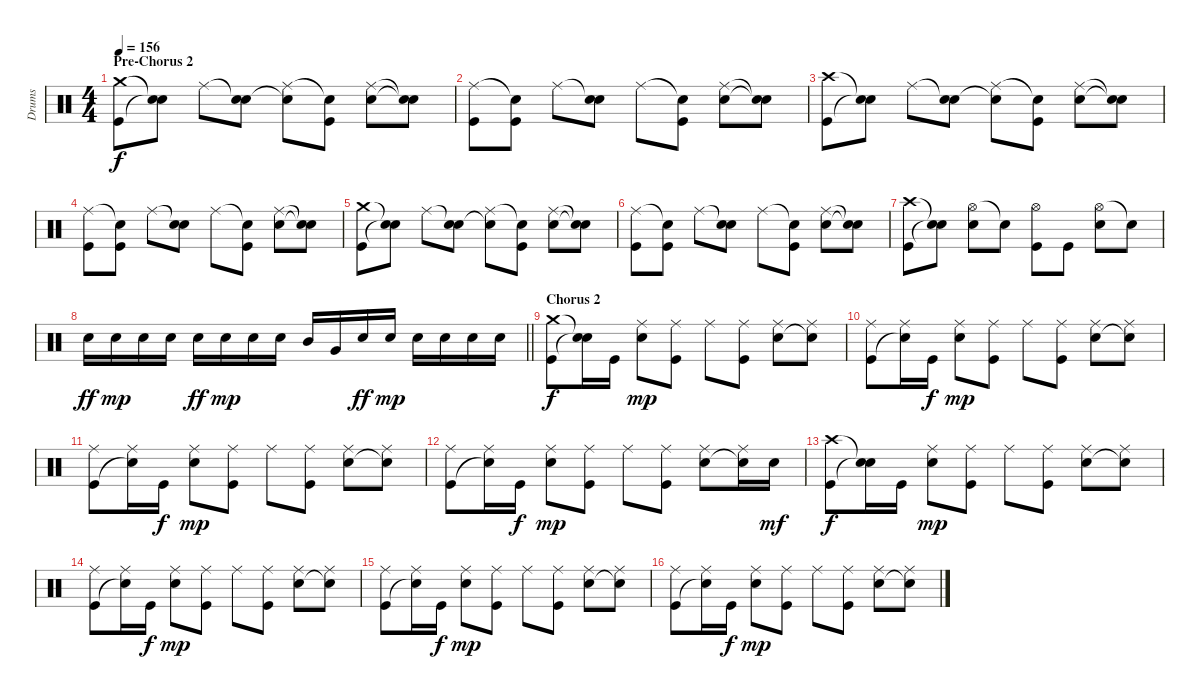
\track ("Drums" "Drums") {instrument percussion}
\staff {score}
\articulation defaults
\ts (4 4)
\section ("" "Pre-Chorus 2")
\tempo 156
\clef neutral
\ks c
("Crash medium (hit)" "Kick (hit)").8{dy f} ("Snare (hit)"{t} "Snare (hit)"{t}).8 "Ride (middle)".8 ("Snare (hit)"{t} "Snare (hit) 2").8 ("Ride (middle)" "Snare (hit)"{t}).8 ("Snare (hit)"{t} "Kick (hit)").8 ("Ride (middle)" "Snare (hit) 2").8 ("Snare (hit)"{t} "Snare (hit)"{t}).8 |
("Ride (middle)" "Kick (hit)").8 ("Snare (hit)"{t} "Kick (hit)").8 "Ride (middle)".8 ("Snare (hit)"{t} "Snare (hit) 2").8 "Ride (middle)".8 ("Snare (hit)"{t} "Kick (hit)").8 ("Ride (middle)" "Snare (hit) 2").8 ("Snare (hit)"{t} "Snare (hit)"{t}).8 |
("Crash high (hit)" "Kick (hit)").8 ("Snare (hit)"{t} "Snare (hit)"{t}).8 "Ride (middle)".8 ("Snare (hit)"{t} "Snare (hit) 2").8 ("Ride (middle)" "Snare (hit)"{t}).8 ("Snare (hit)"{t} "Kick (hit)").8 ("Ride (middle)" "Snare (hit) 2").8 ("Snare (hit)"{t} "Snare (hit)"{t}).8 |
("Ride (middle)" "Kick (hit)").8 ("Snare (hit)"{t} "Kick (hit)").8 "Ride (middle)".8 ("Snare (hit)"{t} "Snare (hit) 2").8 "Ride (middle)".8 ("Snare (hit)"{t} "Kick (hit)").8 ("Ride (middle)" "Snare (hit) 2").8 ("Snare (hit)"{t} "Snare (hit)"{t}).8 |
("Crash medium (hit)" "Kick (hit)").8 ("Snare (hit)"{t} "Snare (hit)"{t}).8 "Ride (middle)".8 ("Snare (hit)"{t} "Snare (hit) 2").8 ("Ride (middle)" "Snare (hit)"{t}).8 ("Snare (hit)"{t} "Kick (hit)").8 ("Ride (middle)" "Snare (hit) 2").8 ("Snare (hit)"{t} "Snare (hit)"{t}).8 |
("Ride (middle)" "Kick (hit)").8 ("Snare (hit)"{t} "Kick (hit)").8 "Ride (middle)".8 ("Snare (hit)"{t} "Snare (hit) 2").8 "Ride (middle)".8 ("Snare (hit)"{t} "Kick (hit)").8 ("Ride (middle)" "Snare (hit) 2").8 ("Snare (hit)"{t} "Snare (hit)"{t}).8 |
("Crash high (hit)" "Kick (hit)").8 ("Snare (hit)"{t} "Snare (hit)"{t}).8 ("Hi-Hat (open)" "Snare (hit) 2").8 "Snare (hit)"{t}.8 ("Hi-Hat (open)" "Kick (hit)").8 "Kick (hit)".8 ("Hi-Hat (open)" "Snare (hit) 2").8 "Snare (hit)"{t}.8 |
\barLineRight lightlight "Snare (hit) 2".16{dy ff} "Snare (hit) 2".16{dy mp} "Snare (hit) 2".16 "Snare (hit) 2".16 "Snare (hit) 2".16{dy ff} "Snare (hit) 2".16{dy mp} "Snare (hit) 2".16 "Snare (hit) 2".16 "Mid Tom (hit)".16 "Very Low Tom (hit)".16 "Snare (hit) 2".16{dy ff} "Snare (hit) 2".16{dy mp} "Snare (hit) 2".16 "Snare (hit) 2".16 "Snare (hit) 2".16 "Snare (hit) 2".16
|
\section ("" "Chorus 2")
("Crash medium (hit)" "Kick (hit)").8{dy f} ("Snare (hit)"{t} "Snare (hit)"{t}).16 "Kick (hit)".16 ("Ride (middle)" "Snare (hit) 2").8{dy mp} ("Ride (middle)" "Kick (hit)").8 "Ride (middle)".8 ("Ride (middle)" "Kick (hit)").8 ("Ride (middle)" "Snare (hit) 2").8 ("Ride (middle)" "Snare (hit)"{t}).8 |
("Ride (middle)" "Kick (hit)").8 ("Ride (middle)" "Snare (hit)"{t}).16 "Kick (hit)".16{dy f} ("Ride (middle)" "Snare (hit) 2").8{dy mp} ("Ride (middle)" "Kick (hit)").8 "Ride (middle)".8 ("Ride (middle)" "Kick (hit)").8 ("Ride (middle)" "Snare (hit) 2").8 ("Ride (middle)" "Snare (hit)"{t}).8 |
("Ride (middle)" "Kick (hit)").8 ("Ride (middle)" "Snare (hit)"{t}).16 "Kick (hit)".16{dy f} ("Ride (middle)" "Snare (hit) 2").8{dy mp} ("Ride (middle)" "Kick (hit)").8 "Ride (middle)".8 ("Ride (middle)" "Kick (hit)").8 ("Ride (middle)" "Snare (hit) 2").8 ("Ride (middle)" "Snare (hit)"{t}).8 |
("Ride (middle)" "Kick (hit)").8 ("Ride (middle)" "Snare (hit)"{t}).16 "Kick (hit)".16{dy f} ("Ride (middle)" "Snare (hit) 2").8{dy mp} ("Ride (middle)" "Kick (hit)").8 "Ride (middle)".8 ("Ride (middle)" "Kick (hit)").8 ("Ride (middle)" "Snare (hit) 2").8 ("Ride (middle)" "Snare (hit)"{t}).16 "Snare (hit) 2".16{dy mf} |
("Crash high (hit)" "Kick (hit)").8{dy f} ("Snare (hit)"{t} "Snare (hit)"{t}).16 "Kick (hit)".16 ("Ride (middle)" "Snare (hit) 2").8{dy mp} ("Ride (middle)" "Kick (hit)").8 "Ride (middle)".8 ("Ride (middle)" "Kick (hit)").8 ("Ride (middle)" "Snare (hit) 2").8 ("Ride (middle)" "Snare (hit)"{t}).8 |
("Ride (middle)" "Kick (hit)").8 ("Ride (middle)" "Snare (hit)"{t}).16 "Kick (hit)".16{dy f} ("Ride (middle)" "Snare (hit) 2").8{dy mp} ("Ride (middle)" "Kick (hit)").8 "Ride (middle)".8 ("Ride (middle)" "Kick (hit)").8 ("Ride (middle)" "Snare (hit) 2").8 ("Ride (middle)" "Snare (hit)"{t}).8 |
("Ride (middle)" "Kick (hit)").8 ("Ride (middle)" "Snare (hit)"{t}).16 "Kick (hit)".16{dy f} ("Ride (middle)" "Snare (hit) 2").8{dy mp} ("Ride (middle)" "Kick (hit)").8 "Ride (middle)".8 ("Ride (middle)" "Kick (hit)").8 ("Ride (middle)" "Snare (hit) 2").8 ("Ride (middle)" "Snare (hit)"{t}).8 |
("Ride (middle)" "Kick (hit)").8 ("Ride (middle)" "Snare (hit)"{t}).16 "Kick (hit)".16{dy f} ("Ride (middle)" "Snare (hit) 2").8{dy mp} ("Ride (middle)" "Kick (hit)").8 "Ride (middle)".8 ("Ride (middle)" "Kick (hit)").8 ("Ride (middle)" "Snare (hit) 2").8 ("Ride (middle)" "Snare (hit)"{t}).8
